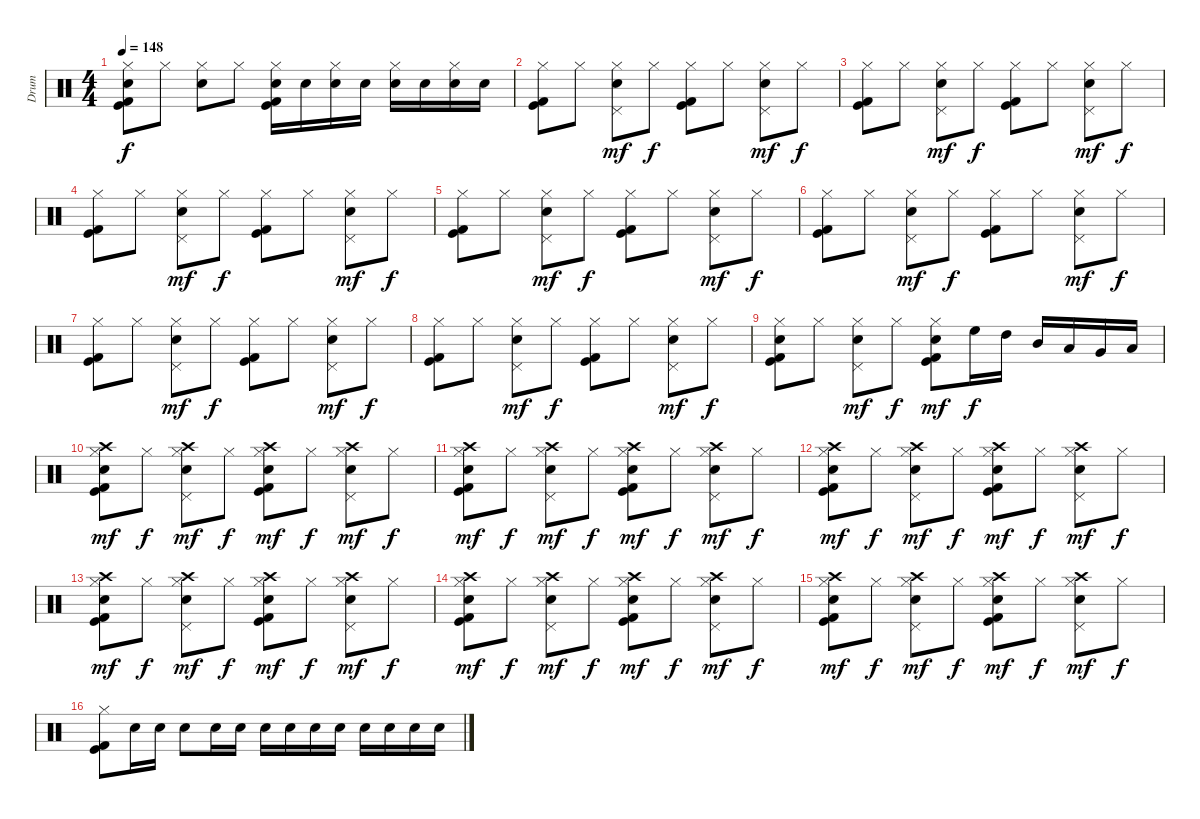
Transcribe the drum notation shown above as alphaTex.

\track ("Drum" "Drum") {instrument percussion}
\staff {score}
\articulation defaults
\ts (4 4)
\tempo 148
\clef neutral
\ks c
("Hi-Hat (closed)" "Snare (hit) 2" "Kick (hit)" "Kick (hit) 2").8{dy f} "Hi-Hat (closed)".8 ("Hi-Hat (closed)" "Snare (hit) 2").8 "Hi-Hat (closed)".8 ("Hi-Hat (closed)" "Electric Snare (hit)" "Kick (hit)" "Kick (hit) 2").16 "Electric Snare (hit)".16 ("Hi-Hat (closed)" "Electric Snare (hit)").16 "Electric Snare (hit)".16 ("Hi-Hat (closed)" "Electric Snare (hit)").16 "Electric Snare (hit)".16 ("Hi-Hat (closed)" "Electric Snare (hit)").16 "Electric Snare (hit)".16 |
("Hi-Hat (closed)" "Kick (hit)" "Kick (hit) 2").8 "Hi-Hat (closed)".8 ("Pedal Hi-Hat (hit)" "Hi-Hat (closed)" "Snare (hit) 2").8{dy mf} "Hi-Hat (closed)".8{dy f} ("Hi-Hat (closed)" "Kick (hit)" "Kick (hit) 2").8 "Hi-Hat (closed)".8 ("Pedal Hi-Hat (hit)" "Hi-Hat (closed)" "Snare (hit) 2").8{dy mf} "Hi-Hat (closed)".8{dy f} |
("Hi-Hat (closed)" "Kick (hit)" "Kick (hit) 2").8 "Hi-Hat (closed)".8 ("Pedal Hi-Hat (hit)" "Hi-Hat (closed)" "Snare (hit) 2").8{dy mf} "Hi-Hat (closed)".8{dy f} ("Hi-Hat (closed)" "Kick (hit)" "Kick (hit) 2").8 "Hi-Hat (closed)".8 ("Pedal Hi-Hat (hit)" "Hi-Hat (closed)" "Snare (hit) 2").8{dy mf} "Hi-Hat (closed)".8{dy f} |
("Hi-Hat (closed)" "Kick (hit)" "Kick (hit) 2").8 "Hi-Hat (closed)".8 ("Pedal Hi-Hat (hit)" "Hi-Hat (closed)" "Snare (hit) 2").8{dy mf} "Hi-Hat (closed)".8{dy f} ("Hi-Hat (closed)" "Kick (hit)" "Kick (hit) 2").8 "Hi-Hat (closed)".8 ("Pedal Hi-Hat (hit)" "Hi-Hat (closed)" "Snare (hit) 2").8{dy mf} "Hi-Hat (closed)".8{dy f} |
("Hi-Hat (closed)" "Kick (hit)" "Kick (hit) 2").8 "Hi-Hat (closed)".8 ("Pedal Hi-Hat (hit)" "Hi-Hat (closed)" "Snare (hit) 2").8{dy mf} "Hi-Hat (closed)".8{dy f} ("Hi-Hat (closed)" "Kick (hit)" "Kick (hit) 2").8 "Hi-Hat (closed)".8 ("Pedal Hi-Hat (hit)" "Hi-Hat (closed)" "Snare (hit) 2").8{dy mf} "Hi-Hat (closed)".8{dy f} |
("Hi-Hat (closed)" "Kick (hit)" "Kick (hit) 2").8 "Hi-Hat (closed)".8 ("Pedal Hi-Hat (hit)" "Hi-Hat (closed)" "Snare (hit) 2").8{dy mf} "Hi-Hat (closed)".8{dy f} ("Hi-Hat (closed)" "Kick (hit)" "Kick (hit) 2").8 "Hi-Hat (closed)".8 ("Pedal Hi-Hat (hit)" "Hi-Hat (closed)" "Snare (hit) 2").8{dy mf} "Hi-Hat (closed)".8{dy f} |
("Hi-Hat (closed)" "Kick (hit)" "Kick (hit) 2").8 "Hi-Hat (closed)".8 ("Pedal Hi-Hat (hit)" "Hi-Hat (closed)" "Snare (hit) 2").8{dy mf} "Hi-Hat (closed)".8{dy f} ("Hi-Hat (closed)" "Kick (hit)" "Kick (hit) 2").8 "Hi-Hat (closed)".8 ("Pedal Hi-Hat (hit)" "Hi-Hat (closed)" "Snare (hit) 2").8{dy mf} "Hi-Hat (closed)".8{dy f} |
("Hi-Hat (closed)" "Kick (hit)" "Kick (hit) 2").8 "Hi-Hat (closed)".8 ("Pedal Hi-Hat (hit)" "Hi-Hat (closed)" "Snare (hit) 2").8{dy mf} "Hi-Hat (closed)".8{dy f} ("Hi-Hat (closed)" "Kick (hit)" "Kick (hit) 2").8 "Hi-Hat (closed)".8 ("Pedal Hi-Hat (hit)" "Hi-Hat (closed)" "Snare (hit) 2").8{dy mf} "Hi-Hat (closed)".8{dy f} |
("Hi-Hat (closed)" "Snare (hit) 2" "Kick (hit)" "Kick (hit) 2").8 "Hi-Hat (closed)".8 ("Pedal Hi-Hat (hit)" "Hi-Hat (closed)" "Snare (hit) 2").8{dy mf} "Hi-Hat (closed)".8{dy f} ("Hi-Hat (closed)" "Electric Snare (hit)" "Kick (hit)" "Kick (hit) 2").8{dy mf} "High Floor Tom (hit)".16{dy f} "High Tom (hit)".16 "Mid Tom (hit)".16 "Low Tom (hit)".16 "Very Low Tom (hit)".16 "Low Floor Tom (hit)".16 |
("Crash high (hit)" "Hi-Hat (closed)" "Snare (hit) 2" "Kick (hit)" "Kick (hit) 2").8{dy mf} "Hi-Hat (closed)".8{dy f} ("Crash high (hit)" "Pedal Hi-Hat (hit)" "Hi-Hat (closed)" "Snare (hit) 2").8{dy mf} "Hi-Hat (closed)".8{dy f} ("Crash high (hit)" "Hi-Hat (closed)" "Snare (hit) 2" "Kick (hit)" "Kick (hit) 2").8{dy mf} "Hi-Hat (closed)".8{dy f} ("Crash high (hit)" "Pedal Hi-Hat (hit)" "Hi-Hat (closed)" "Snare (hit) 2").8{dy mf} "Hi-Hat (closed)".8{dy f} |
("Crash high (hit)" "Hi-Hat (closed)" "Snare (hit) 2" "Kick (hit)" "Kick (hit) 2").8{dy mf} "Hi-Hat (closed)".8{dy f} ("Crash high (hit)" "Pedal Hi-Hat (hit)" "Hi-Hat (closed)" "Snare (hit) 2").8{dy mf} "Hi-Hat (closed)".8{dy f} ("Crash high (hit)" "Hi-Hat (closed)" "Snare (hit) 2" "Kick (hit)" "Kick (hit) 2").8{dy mf} "Hi-Hat (closed)".8{dy f} ("Crash high (hit)" "Pedal Hi-Hat (hit)" "Hi-Hat (closed)" "Snare (hit) 2").8{dy mf} "Hi-Hat (closed)".8{dy f} |
("Crash high (hit)" "Hi-Hat (closed)" "Snare (hit) 2" "Kick (hit)" "Kick (hit) 2").8{dy mf} "Hi-Hat (closed)".8{dy f} ("Crash high (hit)" "Pedal Hi-Hat (hit)" "Hi-Hat (closed)" "Snare (hit) 2").8{dy mf} "Hi-Hat (closed)".8{dy f} ("Crash high (hit)" "Hi-Hat (closed)" "Snare (hit) 2" "Kick (hit)" "Kick (hit) 2").8{dy mf} "Hi-Hat (closed)".8{dy f} ("Crash high (hit)" "Pedal Hi-Hat (hit)" "Hi-Hat (closed)" "Snare (hit) 2").8{dy mf} "Hi-Hat (closed)".8{dy f} |
("Crash high (hit)" "Hi-Hat (closed)" "Snare (hit) 2" "Kick (hit)" "Kick (hit) 2").8{dy mf} "Hi-Hat (closed)".8{dy f} ("Crash high (hit)" "Pedal Hi-Hat (hit)" "Hi-Hat (closed)" "Snare (hit) 2").8{dy mf} "Hi-Hat (closed)".8{dy f} ("Crash high (hit)" "Hi-Hat (closed)" "Snare (hit) 2" "Kick (hit)" "Kick (hit) 2").8{dy mf} "Hi-Hat (closed)".8{dy f} ("Crash high (hit)" "Pedal Hi-Hat (hit)" "Hi-Hat (closed)" "Snare (hit) 2").8{dy mf} "Hi-Hat (closed)".8{dy f} |
("Crash high (hit)" "Hi-Hat (closed)" "Snare (hit) 2" "Kick (hit)" "Kick (hit) 2").8{dy mf} "Hi-Hat (closed)".8{dy f} ("Crash high (hit)" "Pedal Hi-Hat (hit)" "Hi-Hat (closed)" "Snare (hit) 2").8{dy mf} "Hi-Hat (closed)".8{dy f} ("Crash high (hit)" "Hi-Hat (closed)" "Snare (hit) 2" "Kick (hit)" "Kick (hit) 2").8{dy mf} "Hi-Hat (closed)".8{dy f} ("Crash high (hit)" "Pedal Hi-Hat (hit)" "Hi-Hat (closed)" "Snare (hit) 2").8{dy mf} "Hi-Hat (closed)".8{dy f} |
("Crash high (hit)" "Hi-Hat (closed)" "Snare (hit) 2" "Kick (hit)" "Kick (hit) 2").8{dy mf} "Hi-Hat (closed)".8{dy f} ("Crash high (hit)" "Pedal Hi-Hat (hit)" "Hi-Hat (closed)" "Snare (hit) 2").8{dy mf} "Hi-Hat (closed)".8{dy f} ("Crash high (hit)" "Hi-Hat (closed)" "Snare (hit) 2" "Kick (hit)" "Kick (hit) 2").8{dy mf} "Hi-Hat (closed)".8{dy f} ("Crash high (hit)" "Pedal Hi-Hat (hit)" "Hi-Hat (closed)" "Snare (hit) 2").8{dy mf} "Hi-Hat (closed)".8{dy f} |
("Hi-Hat (closed)" "Kick (hit)" "Kick (hit) 2").8 "Electric Snare (hit)".16 "Electric Snare (hit)".16 "Electric Snare (hit)".8 "Electric Snare (hit)".16 "Electric Snare (hit)".16 "Electric Snare (hit)".16 "Electric Snare (hit)".16 "Electric Snare (hit)".16 "Electric Snare (hit)".16 "Electric Snare (hit)".16 "Electric Snare (hit)".16 "Electric Snare (hit)".16 "Electric Snare (hit)".16
